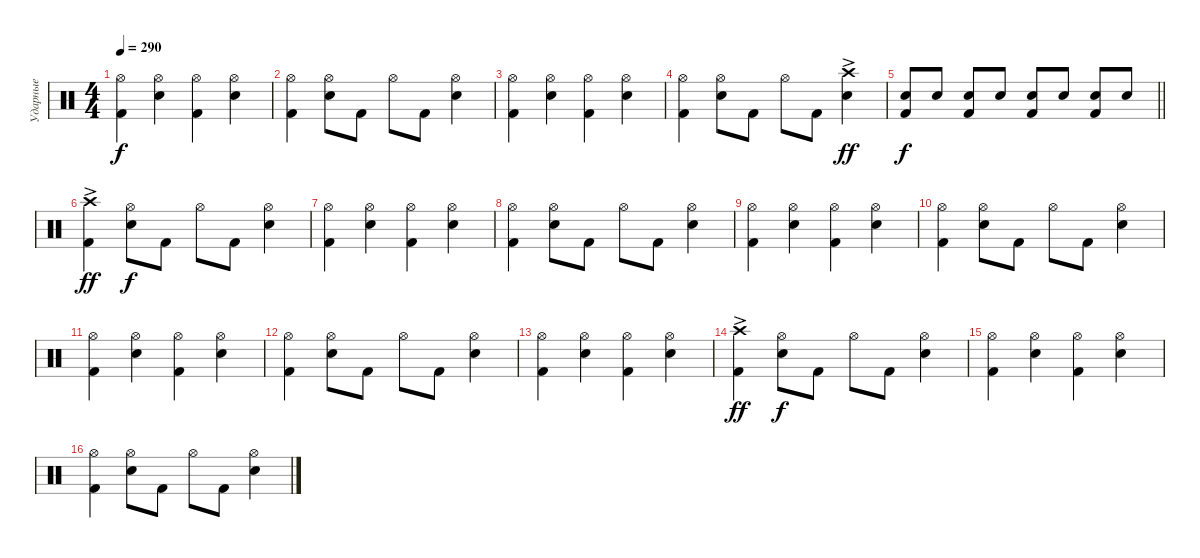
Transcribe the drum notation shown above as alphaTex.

\track ("Ударные" "Ударные") {instrument percussion}
\staff {score}
\articulation defaults
\ts (4 4)
\tempo 290
\clef neutral
\ks c
("Kick (hit) 2" "Hi-Hat (open)").4{dy f} ("Snare (hit) 2" "Hi-Hat (open)").4 ("Kick (hit) 2" "Hi-Hat (open)").4 ("Snare (hit) 2" "Hi-Hat (open)").4 |
("Kick (hit) 2" "Hi-Hat (open)").4 ("Snare (hit) 2" "Hi-Hat (open)").8 "Kick (hit) 2".8 "Hi-Hat (open)".8 "Kick (hit) 2".8 ("Snare (hit) 2" "Hi-Hat (open)").4 |
("Kick (hit) 2" "Hi-Hat (open)").4 ("Snare (hit) 2" "Hi-Hat (open)").4 ("Kick (hit) 2" "Hi-Hat (open)").4 ("Snare (hit) 2" "Hi-Hat (open)").4 |
("Kick (hit) 2" "Hi-Hat (open)").4 ("Snare (hit) 2" "Hi-Hat (open)").8 "Kick (hit) 2".8 "Hi-Hat (open)".8 "Kick (hit) 2".8 ("Snare (hit) 2" "Crash high (hit)"{ac}).4{dy ff} |
\barLineRight lightlight
("Kick (hit) 2" "Snare (hit) 2").8{dy f} "Snare (hit) 2".8 ("Kick (hit) 2" "Snare (hit) 2").8 "Snare (hit) 2".8 ("Kick (hit) 2" "Snare (hit) 2").8 "Snare (hit) 2".8 ("Kick (hit) 2" "Snare (hit) 2").8 "Snare (hit) 2".8 |
("Kick (hit) 2" "Crash high (hit)"{ac}).4{dy ff} ("Snare (hit) 2" "Hi-Hat (open)").8{dy f} "Kick (hit) 2".8 "Hi-Hat (open)".8 "Kick (hit) 2".8 ("Snare (hit) 2" "Hi-Hat (open)").4 |
("Kick (hit) 2" "Hi-Hat (open)").4 ("Snare (hit) 2" "Hi-Hat (open)").4 ("Kick (hit) 2" "Hi-Hat (open)").4 ("Snare (hit) 2" "Hi-Hat (open)").4 |
("Kick (hit) 2" "Hi-Hat (open)").4 ("Snare (hit) 2" "Hi-Hat (open)").8 "Kick (hit) 2".8 "Hi-Hat (open)".8 "Kick (hit) 2".8 ("Snare (hit) 2" "Hi-Hat (open)").4 |
("Kick (hit) 2" "Hi-Hat (open)").4 ("Snare (hit) 2" "Hi-Hat (open)").4 ("Kick (hit) 2" "Hi-Hat (open)").4 ("Snare (hit) 2" "Hi-Hat (open)").4 |
("Kick (hit) 2" "Hi-Hat (open)").4 ("Snare (hit) 2" "Hi-Hat (open)").8 "Kick (hit) 2".8 "Hi-Hat (open)".8 "Kick (hit) 2".8 ("Snare (hit) 2" "Hi-Hat (open)").4 |
("Kick (hit) 2" "Hi-Hat (open)").4 ("Snare (hit) 2" "Hi-Hat (open)").4 ("Kick (hit) 2" "Hi-Hat (open)").4 ("Snare (hit) 2" "Hi-Hat (open)").4 |
("Kick (hit) 2" "Hi-Hat (open)").4 ("Snare (hit) 2" "Hi-Hat (open)").8 "Kick (hit) 2".8 "Hi-Hat (open)".8 "Kick (hit) 2".8 ("Snare (hit) 2" "Hi-Hat (open)").4 |
("Kick (hit) 2" "Hi-Hat (open)").4 ("Snare (hit) 2" "Hi-Hat (open)").4 ("Kick (hit) 2" "Hi-Hat (open)").4 ("Snare (hit) 2" "Hi-Hat (open)").4 |
("Kick (hit) 2" "Crash high (hit)"{ac}).4{dy ff} ("Snare (hit) 2" "Hi-Hat (open)").8{dy f} "Kick (hit) 2".8 "Hi-Hat (open)".8 "Kick (hit) 2".8 ("Snare (hit) 2" "Hi-Hat (open)").4 |
("Kick (hit) 2" "Hi-Hat (open)").4 ("Snare (hit) 2" "Hi-Hat (open)").4 ("Kick (hit) 2" "Hi-Hat (open)").4 ("Snare (hit) 2" "Hi-Hat (open)").4 |
("Kick (hit) 2" "Hi-Hat (open)").4 ("Snare (hit) 2" "Hi-Hat (open)").8 "Kick (hit) 2".8 "Hi-Hat (open)".8 "Kick (hit) 2".8 ("Snare (hit) 2" "Hi-Hat (open)").4
